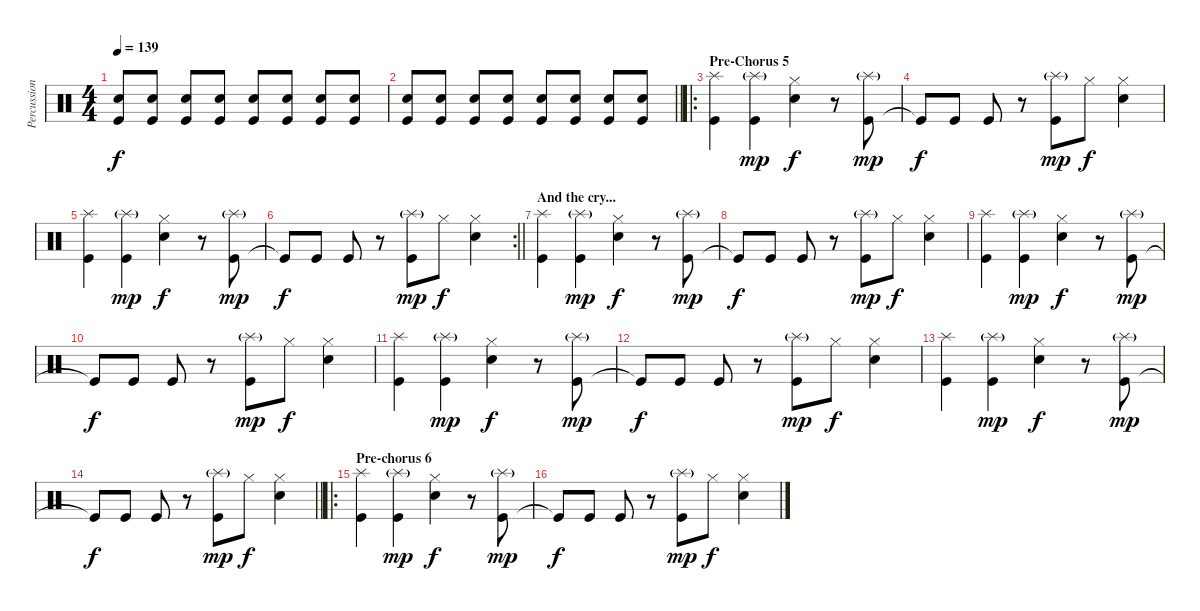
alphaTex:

\track ("Percussion" "Percussion") {instrument percussion}
\staff {score}
\articulation defaults
\ts (4 4)
\tempo 139
\clef neutral
\ks c
("Snare (hit) 2" "Kick (hit)").8{dy f} ("Snare (hit) 2" "Kick (hit)").8 ("Snare (hit) 2" "Kick (hit)").8 ("Snare (hit) 2" "Kick (hit)").8 ("Snare (hit) 2" "Kick (hit)").8 ("Snare (hit) 2" "Kick (hit)").8 ("Snare (hit) 2" "Kick (hit)").8 ("Snare (hit) 2" "Kick (hit)").8 |
\barLineRight lightlight
("Snare (hit) 2" "Kick (hit)").8 ("Snare (hit) 2" "Kick (hit)").8 ("Snare (hit) 2" "Kick (hit)").8 ("Snare (hit) 2" "Kick (hit)").8 ("Snare (hit) 2" "Kick (hit)").8 ("Snare (hit) 2" "Kick (hit)").8 ("Snare (hit) 2" "Kick (hit)").8 ("Snare (hit) 2" "Kick (hit)").8 |
\ro
\section ("" "Pre-Chorus 5")
("Kick (hit)" "Splash (hit)").4 ("Kick (hit)" "Splash (hit)"{g}).4{dy mp} ("Snare (hit) 2" "Hi-Hat (closed)").4{dy f} r.8 ("Kick (hit)" "Splash (hit)"{g}).8{dy mp} |
"Kick (hit)"{t}.8{dy f} "Kick (hit)".8 "Kick (hit)".8 r.8 ("Kick (hit)" "Splash (hit)"{g}).8{dy mp} "Hi-Hat (closed)".8{dy f} ("Snare (hit) 2" "Hi-Hat (closed)").4 |
("Kick (hit)" "Splash (hit)").4 ("Kick (hit)" "Splash (hit)"{g}).4{dy mp} ("Snare (hit) 2" "Hi-Hat (closed)").4{dy f} r.8 ("Kick (hit)" "Splash (hit)"{g}).8{dy mp} |
\rc 2
\barLineRight lightlight "Kick (hit)"{t}.8{dy f} "Kick (hit)".8 "Kick (hit)".8
r.8 ("Kick (hit)" "Splash (hit)"{g}).8{dy mp} "Hi-Hat (closed)".8{dy f} ("Snare (hit) 2" "Hi-Hat (closed)").4 |
\section ("" "And the cry...")
("Kick (hit)" "Splash (hit)").4 ("Kick (hit)" "Splash (hit)"{g}).4{dy mp} ("Snare (hit) 2" "Hi-Hat (closed)").4{dy f} r.8 ("Kick (hit)" "Splash (hit)"{g}).8{dy mp} |
"Kick (hit)"{t}.8{dy f} "Kick (hit)".8 "Kick (hit)".8 r.8 ("Kick (hit)" "Splash (hit)"{g}).8{dy mp} "Hi-Hat (closed)".8{dy f} ("Snare (hit) 2" "Hi-Hat (closed)").4 |
("Kick (hit)" "Splash (hit)").4 ("Kick (hit)" "Splash (hit)"{g}).4{dy mp} ("Snare (hit) 2" "Hi-Hat (closed)").4{dy f} r.8 ("Kick (hit)" "Splash (hit)"{g}).8{dy mp} |
"Kick (hit)"{t}.8{dy f} "Kick (hit)".8 "Kick (hit)".8 r.8 ("Kick (hit)" "Splash (hit)"{g}).8{dy mp} "Hi-Hat (closed)".8{dy f} ("Snare (hit) 2" "Hi-Hat (closed)").4 |
("Kick (hit)" "Splash (hit)").4 ("Kick (hit)" "Splash (hit)"{g}).4{dy mp} ("Snare (hit) 2" "Hi-Hat (closed)").4{dy f} r.8 ("Kick (hit)" "Splash (hit)"{g}).8{dy mp} |
"Kick (hit)"{t}.8{dy f} "Kick (hit)".8 "Kick (hit)".8 r.8 ("Kick (hit)" "Splash (hit)"{g}).8{dy mp} "Hi-Hat (closed)".8{dy f} ("Snare (hit) 2" "Hi-Hat (closed)").4 |
("Kick (hit)" "Splash (hit)").4 ("Kick (hit)" "Splash (hit)"{g}).4{dy mp} ("Snare (hit) 2" "Hi-Hat (closed)").4{dy f} r.8 ("Kick (hit)" "Splash (hit)"{g}).8{dy mp} |
\barLineRight lightlight "Kick (hit)"{t}.8{dy f} "Kick (hit)".8 "Kick (hit)".8
r.8 ("Kick (hit)" "Splash (hit)"{g}).8{dy mp} "Hi-Hat (closed)".8{dy f} ("Snare (hit) 2" "Hi-Hat (closed)").4 |
\ro
\section ("" "Pre-chorus 6")
("Kick (hit)" "Splash (hit)").4 ("Kick (hit)" "Splash (hit)"{g}).4{dy mp} ("Snare (hit) 2" "Hi-Hat (closed)").4{dy f} r.8 ("Kick (hit)" "Splash (hit)"{g}).8{dy mp} |
"Kick (hit)"{t}.8{dy f} "Kick (hit)".8 "Kick (hit)".8 r.8 ("Kick (hit)" "Splash (hit)"{g}).8{dy mp} "Hi-Hat (closed)".8{dy f} ("Snare (hit) 2" "Hi-Hat (closed)").4
